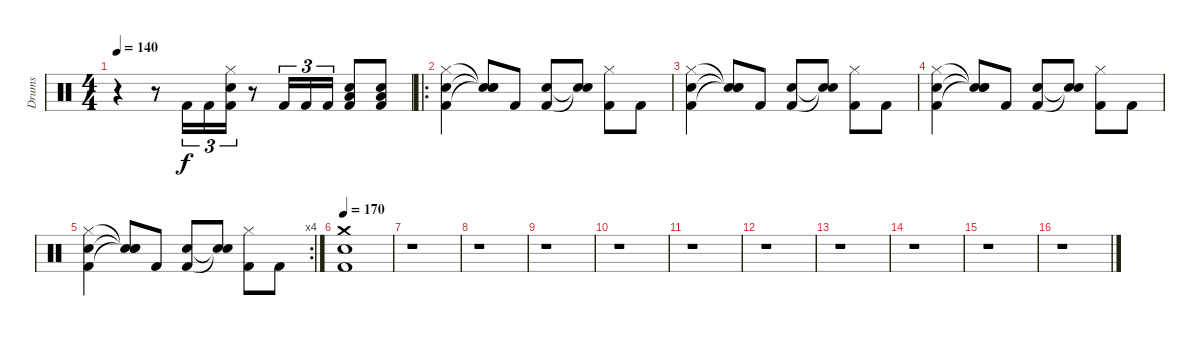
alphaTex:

\track ("Drums" "Drums") {instrument percussion}
\staff {score}
\articulation defaults
\ts (4 4)
\tempo 140
\clef neutral
\ks c
r.4{dy f} r.8 "Kick (hit) 2".16{tu (3 2)} "Kick (hit) 2".16{tu (3 2)} ("Kick (hit) 2" "Snare (hit) 2" "Hi-Hat (closed)").16{tu (3 2)} r.8 "Kick (hit) 2".16{tu (3 2)} "Kick (hit) 2".16{tu (3 2)} "Kick (hit) 2".16{tu (3 2)} ("Kick (hit) 2" "Snare (hit) 2" "Low Tom (hit)").8 ("Kick (hit) 2" "Snare (hit) 2" "Low Tom (hit)").8 |
\ro
("Kick (hit) 2" "Snare (hit) 2" "Hi-Hat (closed)").4 ("Snare (hit)"{t} "Snare (hit)"{t} "Snare (hit)"{t}).8 "Kick (hit) 2".8 ("Kick (hit) 2" "Snare (hit) 2").8 ("Snare (hit)"{t} "Snare (hit)"{t}).8 ("Kick (hit) 2" "Hi-Hat (closed)").8 "Kick (hit) 2".8 |
("Kick (hit) 2" "Snare (hit) 2" "Hi-Hat (closed)").4 ("Snare (hit)"{t} "Snare (hit)"{t} "Snare (hit)"{t}).8 "Kick (hit) 2".8 ("Kick (hit) 2" "Snare (hit) 2").8 ("Snare (hit)"{t} "Snare (hit)"{t}).8 ("Kick (hit) 2" "Hi-Hat (closed)").8 "Kick (hit) 2".8 |
("Kick (hit) 2" "Snare (hit) 2" "Hi-Hat (closed)").4 ("Snare (hit)"{t} "Snare (hit)"{t} "Snare (hit)"{t}).8 "Kick (hit) 2".8 ("Kick (hit) 2" "Snare (hit) 2").8 ("Snare (hit)"{t} "Snare (hit)"{t}).8 ("Kick (hit) 2" "Hi-Hat (closed)").8 "Kick (hit) 2".8 |
\rc 4
("Kick (hit) 2" "Snare (hit) 2" "Hi-Hat (closed)").4 ("Snare (hit)"{t} "Snare (hit)"{t} "Snare (hit)"{t}).8 "Kick (hit) 2".8 ("Kick (hit) 2" "Snare (hit) 2").8 ("Snare (hit)"{t} "Snare (hit)"{t}).8 ("Kick (hit) 2" "Hi-Hat (closed)").8 "Kick (hit) 2".8 |
\tempo 170
("Kick (hit) 2" "Snare (hit) 2" "Crash medium (hit)").1 |
r.1 |
r.1 |
r.1 |
r.1 |
r.1 |
r.1 |
r.1 |
r.1 |
r.1 |
r.1
